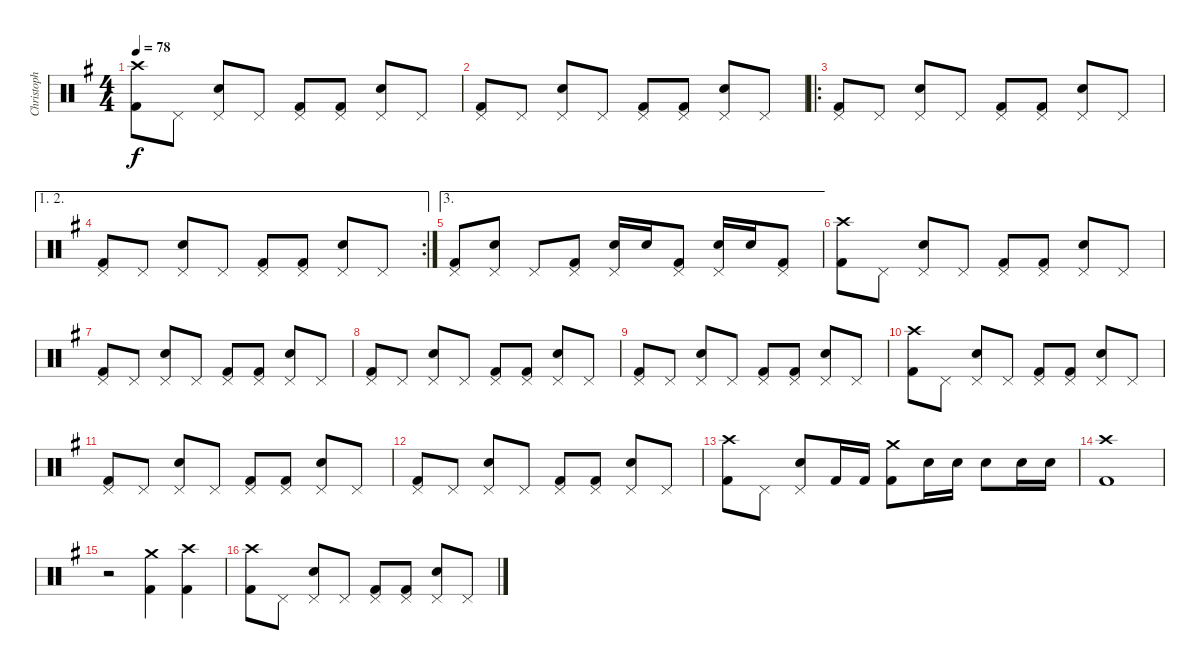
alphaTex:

\track ("Christoph" "Christoph") {instrument percussion}
\staff {score}
\articulation defaults
\ts (4 4)
\tempo 78
\clef neutral
\ks g
("Crash high (hit)" "Kick (hit) 2").8{dy f} "Pedal Hi-Hat (hit)".8 ("Pedal Hi-Hat (hit)" "Snare (hit) 2").8 "Pedal Hi-Hat (hit)".8 ("Pedal Hi-Hat (hit)" "Kick (hit) 2").8 ("Pedal Hi-Hat (hit)" "Kick (hit) 2").8 ("Pedal Hi-Hat (hit)" "Snare (hit) 2").8 "Pedal Hi-Hat (hit)".8 |
("Pedal Hi-Hat (hit)" "Kick (hit) 2").8 "Pedal Hi-Hat (hit)".8 ("Pedal Hi-Hat (hit)" "Snare (hit) 2").8 "Pedal Hi-Hat (hit)".8 ("Pedal Hi-Hat (hit)" "Kick (hit) 2").8 ("Pedal Hi-Hat (hit)" "Kick (hit) 2").8 ("Pedal Hi-Hat (hit)" "Snare (hit) 2").8 "Pedal Hi-Hat (hit)".8 |
\ro
("Pedal Hi-Hat (hit)" "Kick (hit) 2").8 "Pedal Hi-Hat (hit)".8 ("Pedal Hi-Hat (hit)" "Snare (hit) 2").8 "Pedal Hi-Hat (hit)".8 ("Pedal Hi-Hat (hit)" "Kick (hit) 2").8 ("Pedal Hi-Hat (hit)" "Kick (hit) 2").8 ("Pedal Hi-Hat (hit)" "Snare (hit) 2").8 "Pedal Hi-Hat (hit)".8 |
\ae (1 2)
\rc 2
("Pedal Hi-Hat (hit)" "Kick (hit) 2").8 "Pedal Hi-Hat (hit)".8 ("Pedal Hi-Hat (hit)" "Snare (hit) 2").8 "Pedal Hi-Hat (hit)".8 ("Pedal Hi-Hat (hit)" "Kick (hit) 2").8 ("Pedal Hi-Hat (hit)" "Kick (hit) 2").8 ("Pedal Hi-Hat (hit)" "Snare (hit) 2").8 "Pedal Hi-Hat (hit)".8 |
\ae 3
("Pedal Hi-Hat (hit)" "Kick (hit) 2").8 ("Pedal Hi-Hat (hit)" "Snare (hit) 2").8 "Pedal Hi-Hat (hit)".8 ("Pedal Hi-Hat (hit)" "Kick (hit) 2").8 ("Pedal Hi-Hat (hit)" "Snare (hit) 2").16 "Snare (hit) 2".16 ("Pedal Hi-Hat (hit)" "Kick (hit) 2").8 ("Pedal Hi-Hat (hit)" "Snare (hit) 2").16 "Snare (hit) 2".16 ("Pedal Hi-Hat (hit)" "Kick (hit) 2").8 |
("Crash high (hit)" "Kick (hit) 2").8 "Pedal Hi-Hat (hit)".8 ("Pedal Hi-Hat (hit)" "Snare (hit) 2").8 "Pedal Hi-Hat (hit)".8 ("Pedal Hi-Hat (hit)" "Kick (hit) 2").8 ("Pedal Hi-Hat (hit)" "Kick (hit) 2").8 ("Pedal Hi-Hat (hit)" "Snare (hit) 2").8 "Pedal Hi-Hat (hit)".8 |
("Pedal Hi-Hat (hit)" "Kick (hit) 2").8 "Pedal Hi-Hat (hit)".8 ("Pedal Hi-Hat (hit)" "Snare (hit) 2").8 "Pedal Hi-Hat (hit)".8 ("Pedal Hi-Hat (hit)" "Kick (hit) 2").8 ("Pedal Hi-Hat (hit)" "Kick (hit) 2").8 ("Pedal Hi-Hat (hit)" "Snare (hit) 2").8 "Pedal Hi-Hat (hit)".8 |
("Pedal Hi-Hat (hit)" "Kick (hit) 2").8 "Pedal Hi-Hat (hit)".8 ("Pedal Hi-Hat (hit)" "Snare (hit) 2").8 "Pedal Hi-Hat (hit)".8 ("Pedal Hi-Hat (hit)" "Kick (hit) 2").8 ("Pedal Hi-Hat (hit)" "Kick (hit) 2").8 ("Pedal Hi-Hat (hit)" "Snare (hit) 2").8 "Pedal Hi-Hat (hit)".8 |
("Pedal Hi-Hat (hit)" "Kick (hit) 2").8 "Pedal Hi-Hat (hit)".8 ("Pedal Hi-Hat (hit)" "Snare (hit) 2").8 "Pedal Hi-Hat (hit)".8 ("Pedal Hi-Hat (hit)" "Kick (hit) 2").8 ("Pedal Hi-Hat (hit)" "Kick (hit) 2").8 ("Pedal Hi-Hat (hit)" "Snare (hit) 2").8 "Pedal Hi-Hat (hit)".8 |
("Crash high (hit)" "Kick (hit) 2").8 "Pedal Hi-Hat (hit)".8 ("Pedal Hi-Hat (hit)" "Snare (hit) 2").8 "Pedal Hi-Hat (hit)".8 ("Pedal Hi-Hat (hit)" "Kick (hit) 2").8 ("Pedal Hi-Hat (hit)" "Kick (hit) 2").8 ("Pedal Hi-Hat (hit)" "Snare (hit) 2").8 "Pedal Hi-Hat (hit)".8 |
("Pedal Hi-Hat (hit)" "Kick (hit) 2").8 "Pedal Hi-Hat (hit)".8 ("Pedal Hi-Hat (hit)" "Snare (hit) 2").8 "Pedal Hi-Hat (hit)".8 ("Pedal Hi-Hat (hit)" "Kick (hit) 2").8 ("Pedal Hi-Hat (hit)" "Kick (hit) 2").8 ("Pedal Hi-Hat (hit)" "Snare (hit) 2").8 "Pedal Hi-Hat (hit)".8 |
("Pedal Hi-Hat (hit)" "Kick (hit) 2").8 "Pedal Hi-Hat (hit)".8 ("Pedal Hi-Hat (hit)" "Snare (hit) 2").8 "Pedal Hi-Hat (hit)".8 ("Pedal Hi-Hat (hit)" "Kick (hit) 2").8 ("Pedal Hi-Hat (hit)" "Kick (hit) 2").8 ("Pedal Hi-Hat (hit)" "Snare (hit) 2").8 "Pedal Hi-Hat (hit)".8 |
("Crash high (hit)" "Kick (hit) 2").8 "Pedal Hi-Hat (hit)".8 ("Pedal Hi-Hat (hit)" "Snare (hit) 2").8 "Kick (hit) 2".16 "Kick (hit) 2".16 ("Crash medium (hit)" "Kick (hit) 2").8 "Snare (hit) 2".16 "Snare (hit) 2".16 "Snare (hit) 2".8 "Snare (hit) 2".16 "Snare (hit) 2".16 |
("Crash high (hit)" "Kick (hit) 2").1 |
r.2 ("Crash medium (hit)" "Kick (hit) 2").4 ("Crash high (hit)" "Kick (hit) 2").4 |
("Crash high (hit)" "Kick (hit) 2").8 "Pedal Hi-Hat (hit)".8 ("Pedal Hi-Hat (hit)" "Snare (hit) 2").8 "Pedal Hi-Hat (hit)".8 ("Pedal Hi-Hat (hit)" "Kick (hit) 2").8 ("Pedal Hi-Hat (hit)" "Kick (hit) 2").8 ("Pedal Hi-Hat (hit)" "Snare (hit) 2").8 "Pedal Hi-Hat (hit)".8
